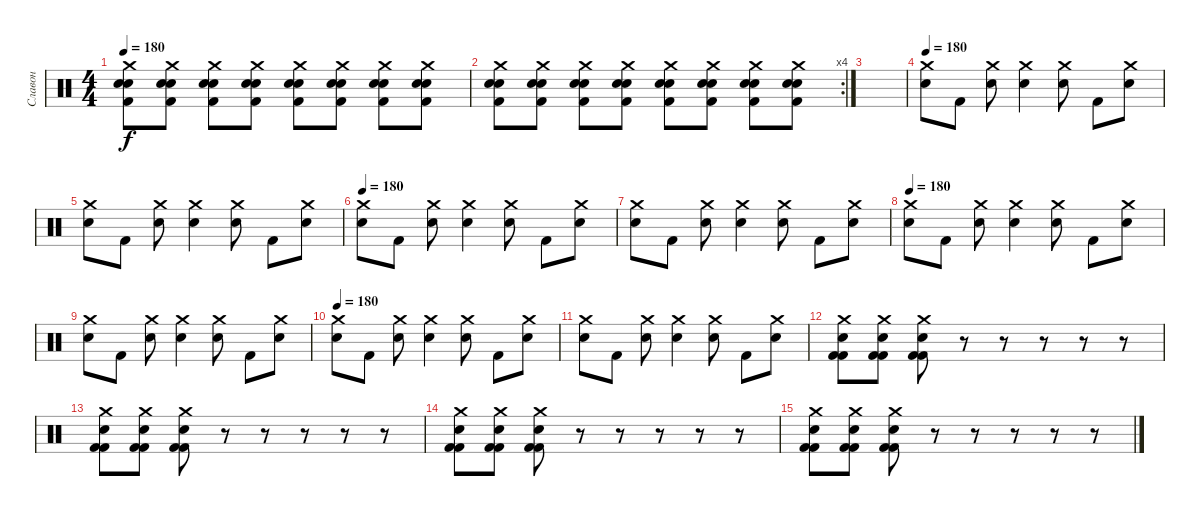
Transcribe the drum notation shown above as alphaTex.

\track ("Славон" "Славон") {instrument percussion}
\staff {score}
\articulation defaults
\ts (4 4)
\tempo 180
\clef neutral
\ks c
("Crash medium (hit)" "Kick (hit) 2" "Snare (hit) 2" "Electric Snare (hit)").8{dy f} ("Crash medium (hit)" "Kick (hit) 2" "Snare (hit) 2" "Electric Snare (hit)").8 ("Crash medium (hit)" "Kick (hit) 2" "Snare (hit) 2" "Electric Snare (hit)").8 ("Crash medium (hit)" "Kick (hit) 2" "Snare (hit) 2" "Electric Snare (hit)").8 ("Crash medium (hit)" "Kick (hit) 2" "Snare (hit) 2" "Electric Snare (hit)").8 ("Crash medium (hit)" "Kick (hit) 2" "Snare (hit) 2" "Electric Snare (hit)").8 ("Crash medium (hit)" "Kick (hit) 2" "Snare (hit) 2" "Electric Snare (hit)").8 ("Crash medium (hit)" "Kick (hit) 2" "Snare (hit) 2" "Electric Snare (hit)").8 |
\rc 4
("Crash medium (hit)" "Kick (hit) 2" "Snare (hit) 2" "Electric Snare (hit)").8 ("Crash medium (hit)" "Kick (hit) 2" "Snare (hit) 2" "Electric Snare (hit)").8 ("Crash medium (hit)" "Kick (hit) 2" "Snare (hit) 2" "Electric Snare (hit)").8 ("Crash medium (hit)" "Kick (hit) 2" "Snare (hit) 2" "Electric Snare (hit)").8 ("Crash medium (hit)" "Kick (hit) 2" "Snare (hit) 2" "Electric Snare (hit)").8 ("Crash medium (hit)" "Kick (hit) 2" "Snare (hit) 2" "Electric Snare (hit)").8 ("Crash medium (hit)" "Kick (hit) 2" "Snare (hit) 2" "Electric Snare (hit)").8 ("Crash medium (hit)" "Kick (hit) 2" "Snare (hit) 2" "Electric Snare (hit)").8 |
|
\tempo 180
("Electric Snare (hit)" "Crash medium (hit)").8 "Kick (hit) 2".8 ("Electric Snare (hit)" "Crash medium (hit)").8 ("Electric Snare (hit)" "Crash medium (hit)").4 ("Electric Snare (hit)" "Crash medium (hit)").8 "Kick (hit) 2".8 ("Electric Snare (hit)" "Crash medium (hit)").8 |
("Electric Snare (hit)" "Crash medium (hit)").8 "Kick (hit) 2".8 ("Electric Snare (hit)" "Crash medium (hit)").8 ("Electric Snare (hit)" "Crash medium (hit)").4 ("Electric Snare (hit)" "Crash medium (hit)").8 "Kick (hit) 2".8 ("Electric Snare (hit)" "Crash medium (hit)").8 |
\tempo 180
("Electric Snare (hit)" "Crash medium (hit)").8 "Kick (hit) 2".8 ("Electric Snare (hit)" "Crash medium (hit)").8 ("Electric Snare (hit)" "Crash medium (hit)").4 ("Electric Snare (hit)" "Crash medium (hit)").8 "Kick (hit) 2".8 ("Electric Snare (hit)" "Crash medium (hit)").8 |
("Electric Snare (hit)" "Crash medium (hit)").8 "Kick (hit) 2".8 ("Electric Snare (hit)" "Crash medium (hit)").8 ("Electric Snare (hit)" "Crash medium (hit)").4 ("Electric Snare (hit)" "Crash medium (hit)").8 "Kick (hit) 2".8 ("Electric Snare (hit)" "Crash medium (hit)").8 |
\tempo 180
("Electric Snare (hit)" "Crash medium (hit)").8 "Kick (hit) 2".8 ("Electric Snare (hit)" "Crash medium (hit)").8 ("Electric Snare (hit)" "Crash medium (hit)").4 ("Electric Snare (hit)" "Crash medium (hit)").8 "Kick (hit) 2".8 ("Electric Snare (hit)" "Crash medium (hit)").8 |
("Electric Snare (hit)" "Crash medium (hit)").8 "Kick (hit) 2".8 ("Electric Snare (hit)" "Crash medium (hit)").8 ("Electric Snare (hit)" "Crash medium (hit)").4 ("Electric Snare (hit)" "Crash medium (hit)").8 "Kick (hit) 2".8 ("Electric Snare (hit)" "Crash medium (hit)").8 |
\tempo 180
("Electric Snare (hit)" "Crash medium (hit)").8 "Kick (hit) 2".8 ("Electric Snare (hit)" "Crash medium (hit)").8 ("Electric Snare (hit)" "Crash medium (hit)").4 ("Electric Snare (hit)" "Crash medium (hit)").8 "Kick (hit) 2".8 ("Electric Snare (hit)" "Crash medium (hit)").8 |
("Electric Snare (hit)" "Crash medium (hit)").8 "Kick (hit) 2".8 ("Electric Snare (hit)" "Crash medium (hit)").8 ("Electric Snare (hit)" "Crash medium (hit)").4 ("Electric Snare (hit)" "Crash medium (hit)").8 "Kick (hit) 2".8 ("Electric Snare (hit)" "Crash medium (hit)").8 |
("Electric Snare (hit)" "Kick (hit) 2" "Kick (hit) 2" "Crash medium (hit)").8 ("Electric Snare (hit)" "Kick (hit) 2" "Kick (hit) 2" "Crash medium (hit)").8 ("Electric Snare (hit)" "Kick (hit) 2" "Kick (hit) 2" "Crash medium (hit)").8 r.8 r.8 r.8 r.8 r.8 |
("Electric Snare (hit)" "Kick (hit) 2" "Kick (hit) 2" "Crash medium (hit)").8 ("Electric Snare (hit)" "Kick (hit) 2" "Kick (hit) 2" "Crash medium (hit)").8 ("Electric Snare (hit)" "Kick (hit) 2" "Kick (hit) 2" "Crash medium (hit)").8 r.8 r.8 r.8 r.8 r.8 |
("Electric Snare (hit)" "Kick (hit) 2" "Kick (hit) 2" "Crash medium (hit)").8 ("Electric Snare (hit)" "Kick (hit) 2" "Kick (hit) 2" "Crash medium (hit)").8 ("Electric Snare (hit)" "Kick (hit) 2" "Kick (hit) 2" "Crash medium (hit)").8 r.8 r.8 r.8 r.8 r.8 |
("Electric Snare (hit)" "Kick (hit) 2" "Kick (hit) 2" "Crash medium (hit)").8 ("Electric Snare (hit)" "Kick (hit) 2" "Kick (hit) 2" "Crash medium (hit)").8 ("Electric Snare (hit)" "Kick (hit) 2" "Kick (hit) 2" "Crash medium (hit)").8 r.8 r.8 r.8 r.8 r.8
